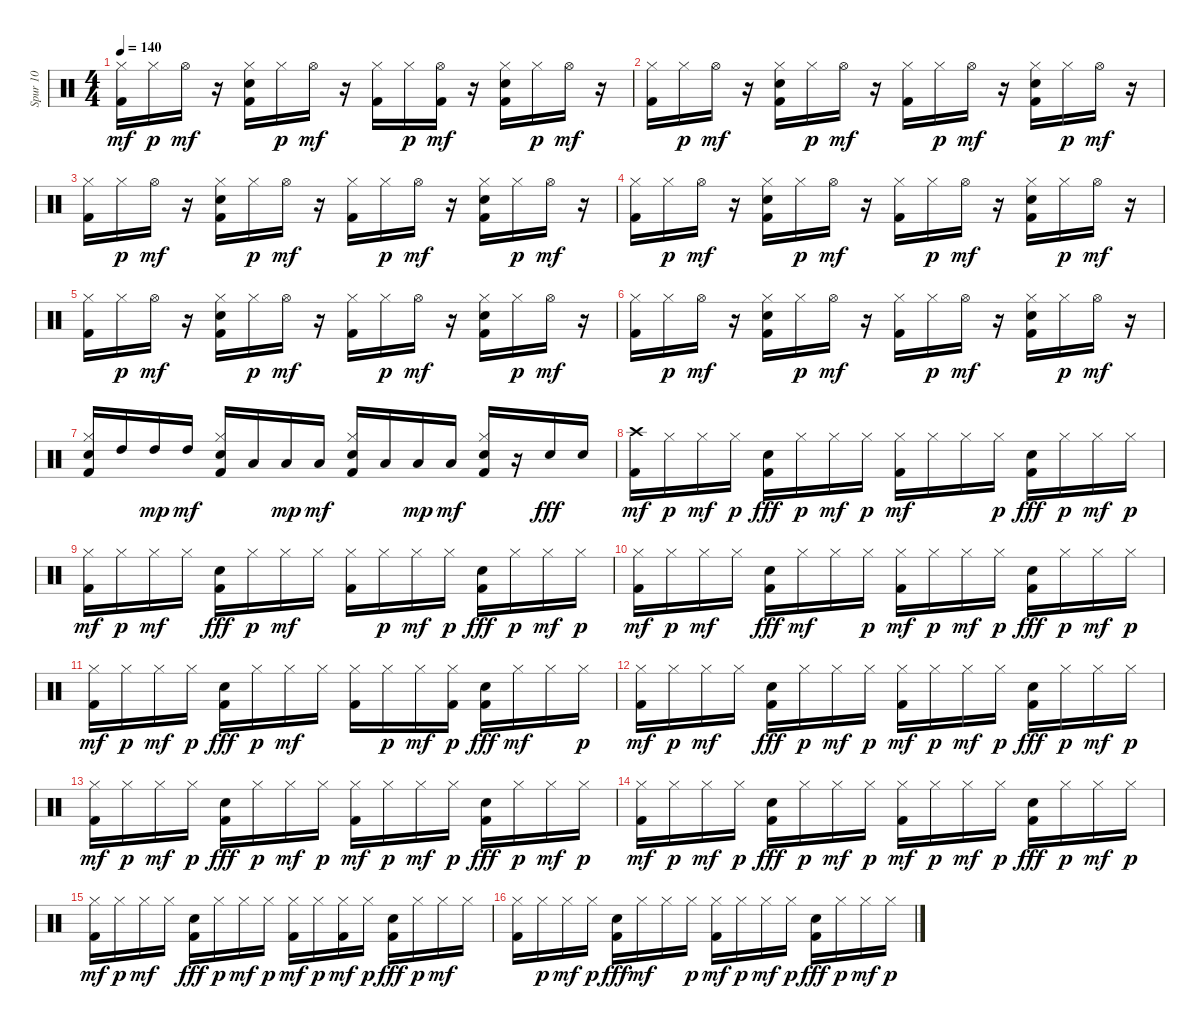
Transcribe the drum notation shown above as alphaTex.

\track ("Spur 10" "Spur 10") {instrument percussion}
\staff {score}
\articulation defaults
\ts (4 4)
\tempo 140
\clef neutral
\ks c
("Kick (hit) 2" "Hi-Hat (closed)").16{dy mf} "Hi-Hat (closed)".16{dy p} "Hi-Hat (open)".16{dy mf} r.16 ("Kick (hit) 2" "Snare (hit) 2" "Hi-Hat (closed)").16 "Hi-Hat (closed)".16{dy p} "Hi-Hat (open)".16{dy mf} r.16 ("Kick (hit) 2" "Hi-Hat (closed)").16 "Hi-Hat (closed)".16{dy p} ("Kick (hit) 2" "Hi-Hat (open)").16{dy mf} r.16 ("Kick (hit) 2" "Snare (hit) 2" "Hi-Hat (closed)").16 "Hi-Hat (closed)".16{dy p} "Hi-Hat (open)".16{dy mf} r.16 |
("Kick (hit) 2" "Hi-Hat (closed)").16 "Hi-Hat (closed)".16{dy p} "Hi-Hat (open)".16{dy mf} r.16 ("Kick (hit) 2" "Snare (hit) 2" "Hi-Hat (closed)").16 "Hi-Hat (closed)".16{dy p} "Hi-Hat (open)".16{dy mf} r.16 ("Kick (hit) 2" "Hi-Hat (closed)").16 "Hi-Hat (closed)".16{dy p} "Hi-Hat (open)".16{dy mf} r.16 ("Kick (hit) 2" "Snare (hit) 2" "Hi-Hat (closed)").16 "Hi-Hat (closed)".16{dy p} "Hi-Hat (open)".16{dy mf} r.16 |
("Kick (hit) 2" "Hi-Hat (closed)").16 "Hi-Hat (closed)".16{dy p} "Hi-Hat (open)".16{dy mf} r.16 ("Kick (hit) 2" "Snare (hit) 2" "Hi-Hat (closed)").16 "Hi-Hat (closed)".16{dy p} "Hi-Hat (open)".16{dy mf} r.16 ("Kick (hit) 2" "Hi-Hat (closed)").16 "Hi-Hat (closed)".16{dy p} "Hi-Hat (open)".16{dy mf} r.16 ("Kick (hit) 2" "Snare (hit) 2" "Hi-Hat (closed)").16 "Hi-Hat (closed)".16{dy p} "Hi-Hat (open)".16{dy mf} r.16 |
("Kick (hit) 2" "Hi-Hat (closed)").16 "Hi-Hat (closed)".16{dy p} "Hi-Hat (open)".16{dy mf} r.16 ("Kick (hit) 2" "Snare (hit) 2" "Hi-Hat (closed)").16 "Hi-Hat (closed)".16{dy p} "Hi-Hat (open)".16{dy mf} r.16 ("Kick (hit) 2" "Hi-Hat (closed)").16 "Hi-Hat (closed)".16{dy p} "Hi-Hat (open)".16{dy mf} r.16 ("Kick (hit) 2" "Snare (hit) 2" "Hi-Hat (closed)").16 "Hi-Hat (closed)".16{dy p} "Hi-Hat (open)".16{dy mf} r.16 |
("Kick (hit) 2" "Hi-Hat (closed)").16 "Hi-Hat (closed)".16{dy p} "Hi-Hat (open)".16{dy mf} r.16 ("Kick (hit) 2" "Snare (hit) 2" "Hi-Hat (closed)").16 "Hi-Hat (closed)".16{dy p} "Hi-Hat (open)".16{dy mf} r.16 ("Kick (hit) 2" "Hi-Hat (closed)").16 "Hi-Hat (closed)".16{dy p} "Hi-Hat (open)".16{dy mf} r.16 ("Kick (hit) 2" "Snare (hit) 2" "Hi-Hat (closed)").16 "Hi-Hat (closed)".16{dy p} "Hi-Hat (open)".16{dy mf} r.16 |
("Kick (hit) 2" "Hi-Hat (closed)").16 "Hi-Hat (closed)".16{dy p} "Hi-Hat (open)".16{dy mf} r.16 ("Kick (hit) 2" "Snare (hit) 2" "Hi-Hat (closed)").16 "Hi-Hat (closed)".16{dy p} "Hi-Hat (open)".16{dy mf} r.16 ("Kick (hit) 2" "Hi-Hat (closed)").16 "Hi-Hat (closed)".16{dy p} "Hi-Hat (open)".16{dy mf} r.16 ("Kick (hit) 2" "Snare (hit) 2" "Hi-Hat (closed)").16 "Hi-Hat (closed)".16{dy p} "Hi-Hat (open)".16{dy mf} r.16 |
("Kick (hit) 2" "Snare (hit) 2" "Hi-Hat (closed)").16 "High Tom (hit)".16 "High Tom (hit)".16{dy mp} "High Tom (hit)".16{dy mf} ("Kick (hit) 2" "Snare (hit) 2" "Hi-Hat (closed)").16 "Low Tom (hit)".16 "Low Tom (hit)".16{dy mp} "Low Tom (hit)".16{dy mf} ("Kick (hit) 2" "Snare (hit) 2" "Hi-Hat (closed)").16 "Low Floor Tom (hit)".16 "Low Floor Tom (hit)".16{dy mp} "Low Floor Tom (hit)".16{dy mf} ("Kick (hit) 2" "Snare (hit) 2" "Hi-Hat (closed)").16 r.16 "Snare (hit) 2".16{dy fff} "Snare (hit) 2".16 |
("Kick (hit) 2" "Crash high (hit)").16{dy mf} "Hi-Hat (closed)".16{dy p} "Hi-Hat (closed)".16{dy mf} "Hi-Hat (closed)".16{dy p} ("Kick (hit) 2" "Snare (hit) 2").16{dy fff} "Hi-Hat (closed)".16{dy p} "Hi-Hat (closed)".16{dy mf} "Hi-Hat (closed)".16{dy p} ("Kick (hit) 2" "Hi-Hat (closed)").16{dy mf} "Hi-Hat (closed)".16 "Hi-Hat (closed)".16 "Hi-Hat (closed)".16{dy p} ("Kick (hit) 2" "Snare (hit) 2").16{dy fff} "Hi-Hat (closed)".16{dy p} "Hi-Hat (closed)".16{dy mf} "Hi-Hat (closed)".16{dy p} |
("Kick (hit) 2" "Hi-Hat (closed)").16{dy mf} "Hi-Hat (closed)".16{dy p} "Hi-Hat (closed)".16{dy mf} "Hi-Hat (closed)".16 ("Kick (hit) 2" "Snare (hit) 2").16{dy fff} "Hi-Hat (closed)".16{dy p} "Hi-Hat (closed)".16{dy mf} "Hi-Hat (closed)".16 ("Kick (hit) 2" "Hi-Hat (closed)").16 "Hi-Hat (closed)".16{dy p} "Hi-Hat (closed)".16{dy mf} "Hi-Hat (closed)".16{dy p} ("Kick (hit) 2" "Snare (hit) 2").16{dy fff} "Hi-Hat (closed)".16{dy p} "Hi-Hat (closed)".16{dy mf} "Hi-Hat (closed)".16{dy p} |
("Kick (hit) 2" "Hi-Hat (closed)").16{dy mf} "Hi-Hat (closed)".16{dy p} "Hi-Hat (closed)".16{dy mf} "Hi-Hat (closed)".16 ("Kick (hit) 2" "Snare (hit) 2").16{dy fff} "Hi-Hat (closed)".16{dy mf} "Hi-Hat (closed)".16 "Hi-Hat (closed)".16{dy p} ("Kick (hit) 2" "Hi-Hat (closed)").16{dy mf} "Hi-Hat (closed)".16{dy p} "Hi-Hat (closed)".16{dy mf} "Hi-Hat (closed)".16{dy p} ("Kick (hit) 2" "Snare (hit) 2").16{dy fff} "Hi-Hat (closed)".16{dy p} "Hi-Hat (closed)".16{dy mf} "Hi-Hat (closed)".16{dy p} |
("Kick (hit) 2" "Hi-Hat (closed)").16{dy mf} "Hi-Hat (closed)".16{dy p} "Hi-Hat (closed)".16{dy mf} "Hi-Hat (closed)".16{dy p} ("Kick (hit) 2" "Snare (hit) 2").16{dy fff} "Hi-Hat (closed)".16{dy p} "Hi-Hat (closed)".16{dy mf} "Hi-Hat (closed)".16 ("Kick (hit) 2" "Hi-Hat (closed)").16 "Hi-Hat (closed)".16{dy p} "Hi-Hat (closed)".16{dy mf} ("Kick (hit) 2" "Hi-Hat (closed)").16{dy p} ("Kick (hit) 2" "Snare (hit) 2").16{dy fff} "Hi-Hat (closed)".16{dy mf} "Hi-Hat (closed)".16 "Hi-Hat (closed)".16{dy p} |
("Kick (hit) 2" "Hi-Hat (closed)").16{dy mf} "Hi-Hat (closed)".16{dy p} "Hi-Hat (closed)".16{dy mf} "Hi-Hat (closed)".16 ("Kick (hit) 2" "Snare (hit) 2").16{dy fff} "Hi-Hat (closed)".16{dy p} "Hi-Hat (closed)".16{dy mf} "Hi-Hat (closed)".16{dy p} ("Kick (hit) 2" "Hi-Hat (closed)").16{dy mf} "Hi-Hat (closed)".16{dy p} "Hi-Hat (closed)".16{dy mf} "Hi-Hat (closed)".16{dy p} ("Kick (hit) 2" "Snare (hit) 2").16{dy fff} "Hi-Hat (closed)".16{dy p} "Hi-Hat (closed)".16{dy mf} "Hi-Hat (closed)".16{dy p} |
("Kick (hit) 2" "Hi-Hat (closed)").16{dy mf} "Hi-Hat (closed)".16{dy p} "Hi-Hat (closed)".16{dy mf} "Hi-Hat (closed)".16{dy p} ("Kick (hit) 2" "Snare (hit) 2").16{dy fff} "Hi-Hat (closed)".16{dy p} "Hi-Hat (closed)".16{dy mf} "Hi-Hat (closed)".16{dy p} ("Kick (hit) 2" "Hi-Hat (closed)").16{dy mf} "Hi-Hat (closed)".16{dy p} "Hi-Hat (closed)".16{dy mf} "Hi-Hat (closed)".16{dy p} ("Kick (hit) 2" "Snare (hit) 2").16{dy fff} "Hi-Hat (closed)".16{dy p} "Hi-Hat (closed)".16{dy mf} "Hi-Hat (closed)".16{dy p} |
("Kick (hit) 2" "Hi-Hat (closed)").16{dy mf} "Hi-Hat (closed)".16{dy p} "Hi-Hat (closed)".16{dy mf} "Hi-Hat (closed)".16{dy p} ("Kick (hit) 2" "Snare (hit) 2").16{dy fff} "Hi-Hat (closed)".16{dy p} "Hi-Hat (closed)".16{dy mf} "Hi-Hat (closed)".16{dy p} ("Kick (hit) 2" "Hi-Hat (closed)").16{dy mf} "Hi-Hat (closed)".16{dy p} "Hi-Hat (closed)".16{dy mf} "Hi-Hat (closed)".16{dy p} ("Kick (hit) 2" "Snare (hit) 2").16{dy fff} "Hi-Hat (closed)".16{dy p} "Hi-Hat (closed)".16{dy mf} "Hi-Hat (closed)".16{dy p} |
("Kick (hit) 2" "Hi-Hat (closed)").16{dy mf} "Hi-Hat (closed)".16{dy p} "Hi-Hat (closed)".16{dy mf} "Hi-Hat (closed)".16 ("Kick (hit) 2" "Snare (hit) 2").16{dy fff} "Hi-Hat (closed)".16{dy p} "Hi-Hat (closed)".16{dy mf} "Hi-Hat (closed)".16{dy p} ("Kick (hit) 2" "Hi-Hat (closed)").16{dy mf} "Hi-Hat (closed)".16{dy p} ("Kick (hit) 2" "Hi-Hat (closed)").16{dy mf} "Hi-Hat (closed)".16{dy p} ("Kick (hit) 2" "Snare (hit) 2").16{dy fff} "Hi-Hat (closed)".16{dy p} "Hi-Hat (closed)".16{dy mf} "Hi-Hat (closed)".16 |
("Kick (hit) 2" "Hi-Hat (closed)").16 "Hi-Hat (closed)".16{dy p} "Hi-Hat (closed)".16{dy mf} "Hi-Hat (closed)".16{dy p} ("Kick (hit) 2" "Snare (hit) 2").16{dy fff} "Hi-Hat (closed)".16{dy mf} "Hi-Hat (closed)".16 "Hi-Hat (closed)".16{dy p} ("Kick (hit) 2" "Hi-Hat (closed)").16{dy mf} "Hi-Hat (closed)".16{dy p} "Hi-Hat (closed)".16{dy mf} "Hi-Hat (closed)".16{dy p} ("Kick (hit) 2" "Snare (hit) 2").16{dy fff} "Hi-Hat (closed)".16{dy p} "Hi-Hat (closed)".16{dy mf} "Hi-Hat (closed)".16{dy p}
